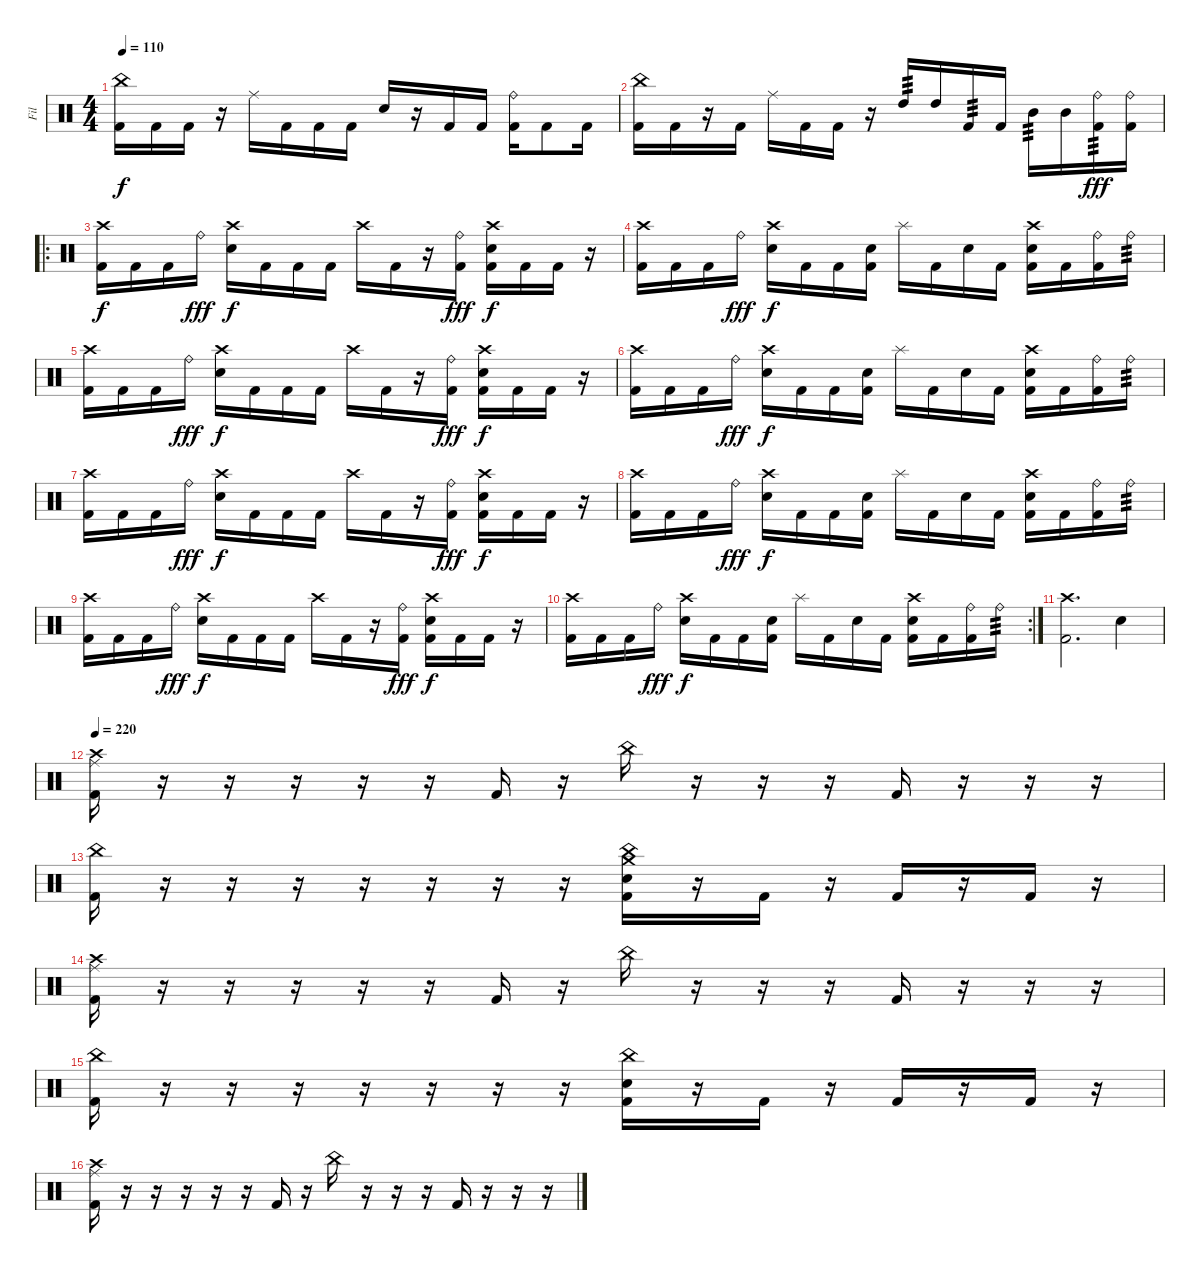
\track ("Fil" "Fil") {instrument percussion}
\staff {score}
\articulation defaults
\ts (4 4)
\tempo 110
\clef neutral
\ks c
("China (hit)" "Kick (hit) 2").16{dy f} "Kick (hit) 2".16 "Kick (hit) 2".16 r.16 "Ride (middle)".16 "Kick (hit) 2".16 "Kick (hit) 2".16 "Kick (hit) 2".16 "Snare (hit) 2".16 r.16 "Kick (hit) 2".16 "Kick (hit) 2".16 ("Kick (hit) 2" "Ride (bell)").16 "Kick (hit) 2".8 "Kick (hit) 2".16 |
("China (hit)" "Kick (hit) 2").16 "Kick (hit) 2".16 r.16 "Kick (hit) 2".16 "Ride (middle)".16 "Kick (hit) 2".16 "Kick (hit) 2".16 r.16 "High Tom (hit)".16{tp 3} "High Tom (hit)".16 "Kick (hit) 2".16{tp 3} "Kick (hit) 2".16 "Mid Tom (hit)".16{tp 3} "Mid Tom (hit)".16 ("Ride (bell)" "Kick (hit) 2").16{tp 3 dy fff} ("Ride (bell)" "Kick (hit) 2").16 |
\ro
("Crash high (hit)" "Kick (hit) 2").16{dy f} "Kick (hit) 2".16 "Kick (hit) 2".16 "Ride (bell)".16{dy fff} ("Crash high (hit)" "Snare (hit) 2").16{dy f} "Kick (hit) 2".16 "Kick (hit) 2".16 "Kick (hit) 2".16 "Crash high (hit)".16 "Kick (hit) 2".16 r.16 ("Kick (hit) 2" "Ride (bell)").16{dy fff} ("Kick (hit) 2" "Crash high (hit)" "Snare (hit) 2").16{dy f} "Kick (hit) 2".16 "Kick (hit) 2".16 r.16 |
("Crash high (hit)" "Kick (hit) 2").16 "Kick (hit) 2".16 "Kick (hit) 2".16 "Ride (bell)".16{dy fff} ("Crash high (hit)" "Snare (hit) 2").16{dy f} "Kick (hit) 2".16 "Kick (hit) 2".16 ("Kick (hit) 2" "Snare (hit) 2").16 "Splash (hit)".16 "Kick (hit) 2".16 "Snare (hit) 2".16 "Kick (hit) 2".16 ("Kick (hit) 2" "Crash high (hit)" "Snare (hit) 2").16 "Kick (hit) 2".16 ("Kick (hit) 2" "Ride (bell)").16 "Ride (bell)".16{tp 3} |
("Crash high (hit)" "Kick (hit) 2").16 "Kick (hit) 2".16 "Kick (hit) 2".16 "Ride (bell)".16{dy fff} ("Crash high (hit)" "Snare (hit) 2").16{dy f} "Kick (hit) 2".16 "Kick (hit) 2".16 "Kick (hit) 2".16 "Crash high (hit)".16 "Kick (hit) 2".16 r.16 ("Kick (hit) 2" "Ride (bell)").16{dy fff} ("Kick (hit) 2" "Crash high (hit)" "Snare (hit) 2").16{dy f} "Kick (hit) 2".16 "Kick (hit) 2".16 r.16 |
("Crash high (hit)" "Kick (hit) 2").16 "Kick (hit) 2".16 "Kick (hit) 2".16 "Ride (bell)".16{dy fff} ("Crash high (hit)" "Snare (hit) 2").16{dy f} "Kick (hit) 2".16 "Kick (hit) 2".16 ("Kick (hit) 2" "Snare (hit) 2").16 "Splash (hit)".16 "Kick (hit) 2".16 "Snare (hit) 2".16 "Kick (hit) 2".16 ("Kick (hit) 2" "Crash high (hit)" "Snare (hit) 2").16 "Kick (hit) 2".16 ("Kick (hit) 2" "Ride (bell)").16 "Ride (bell)".16{tp 3} |
("Crash high (hit)" "Kick (hit) 2").16 "Kick (hit) 2".16 "Kick (hit) 2".16 "Ride (bell)".16{dy fff} ("Crash high (hit)" "Snare (hit) 2").16{dy f} "Kick (hit) 2".16 "Kick (hit) 2".16 "Kick (hit) 2".16 "Crash high (hit)".16 "Kick (hit) 2".16 r.16 ("Kick (hit) 2" "Ride (bell)").16{dy fff} ("Kick (hit) 2" "Crash high (hit)" "Snare (hit) 2").16{dy f} "Kick (hit) 2".16 "Kick (hit) 2".16 r.16 |
("Crash high (hit)" "Kick (hit) 2").16 "Kick (hit) 2".16 "Kick (hit) 2".16 "Ride (bell)".16{dy fff} ("Crash high (hit)" "Snare (hit) 2").16{dy f} "Kick (hit) 2".16 "Kick (hit) 2".16 ("Kick (hit) 2" "Snare (hit) 2").16 "Splash (hit)".16 "Kick (hit) 2".16 "Snare (hit) 2".16 "Kick (hit) 2".16 ("Kick (hit) 2" "Crash high (hit)" "Snare (hit) 2").16 "Kick (hit) 2".16 ("Kick (hit) 2" "Ride (bell)").16 "Ride (bell)".16{tp 3} |
("Crash high (hit)" "Kick (hit) 2").16 "Kick (hit) 2".16 "Kick (hit) 2".16 "Ride (bell)".16{dy fff} ("Crash high (hit)" "Snare (hit) 2").16{dy f} "Kick (hit) 2".16 "Kick (hit) 2".16 "Kick (hit) 2".16 "Crash high (hit)".16 "Kick (hit) 2".16 r.16 ("Kick (hit) 2" "Ride (bell)").16{dy fff} ("Kick (hit) 2" "Crash high (hit)" "Snare (hit) 2").16{dy f} "Kick (hit) 2".16 "Kick (hit) 2".16 r.16 |
\rc 2
("Crash high (hit)" "Kick (hit) 2").16 "Kick (hit) 2".16 "Kick (hit) 2".16 "Ride (bell)".16{dy fff} ("Crash high (hit)" "Snare (hit) 2").16{dy f} "Kick (hit) 2".16 "Kick (hit) 2".16 ("Kick (hit) 2" "Snare (hit) 2").16 "Splash (hit)".16 "Kick (hit) 2".16 "Snare (hit) 2".16 "Kick (hit) 2".16 ("Kick (hit) 2" "Crash high (hit)" "Snare (hit) 2").16 "Kick (hit) 2".16 ("Kick (hit) 2" "Ride (bell)").16 "Ride (bell)".16{tp 3} |
("Crash high (hit)" "Kick (hit) 2").2{d} "Snare (hit) 2".4 |
\tempo 220
("Crash high (hit)" "Ride (middle)" "Kick (hit) 2").16 r.16 r.16 r.16 r.16 r.16 "Kick (hit) 2".16 r.16 "China (hit)".16 r.16 r.16 r.16 "Kick (hit) 2".16 r.16 r.16 r.16 |
("China (hit)" "Kick (hit) 2").16 r.16 r.16 r.16 r.16 r.16 r.16 r.16 ("Crash medium (hit)" "China (hit)" "Electric Snare (hit)" "Kick (hit) 2").16 r.16 "Kick (hit) 2".16 r.16 "Kick (hit) 2".16 r.16 "Kick (hit) 2".16 r.16 |
("Crash high (hit)" "Ride (middle)" "Kick (hit) 2").16 r.16 r.16 r.16 r.16 r.16 "Kick (hit) 2".16 r.16 "China (hit)".16 r.16 r.16 r.16 "Kick (hit) 2".16 r.16 r.16 r.16 |
("China (hit)" "Kick (hit) 2").16 r.16 r.16 r.16 r.16 r.16 r.16 r.16 ("China (hit)" "Electric Snare (hit)" "Kick (hit) 2").16 r.16 "Kick (hit) 2".16 r.16 "Kick (hit) 2".16 r.16 "Kick (hit) 2".16 r.16 |
("Crash high (hit)" "Ride (middle)" "Kick (hit) 2").16 r.16 r.16 r.16 r.16 r.16 "Kick (hit) 2".16 r.16 "China (hit)".16 r.16 r.16 r.16 "Kick (hit) 2".16 r.16 r.16 r.16
